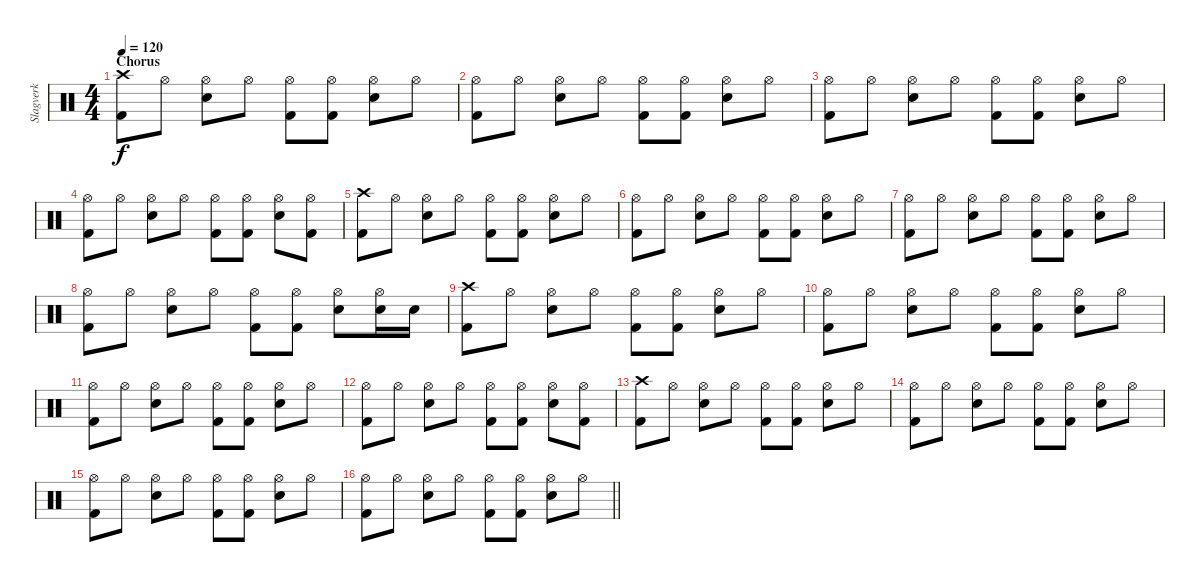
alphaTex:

\track ("Slagverk" "Slagverk") {instrument percussion}
\staff {score}
\articulation defaults
\ts (4 4)
\section ("" "Chorus")
\tempo 120
\clef neutral
\ks c
("Crash high (hit)" "Kick (hit) 2").8{dy f} "Hi-Hat (open)".8 ("Hi-Hat (open)" "Snare (hit) 2").8 "Hi-Hat (open)".8 ("Hi-Hat (open)" "Kick (hit) 2").8 ("Hi-Hat (open)" "Kick (hit) 2").8 ("Hi-Hat (open)" "Snare (hit) 2").8 "Hi-Hat (open)".8 |
("Hi-Hat (open)" "Kick (hit) 2").8 "Hi-Hat (open)".8 ("Hi-Hat (open)" "Snare (hit) 2").8 "Hi-Hat (open)".8 ("Hi-Hat (open)" "Kick (hit) 2").8 ("Hi-Hat (open)" "Kick (hit) 2").8 ("Hi-Hat (open)" "Snare (hit) 2").8 "Hi-Hat (open)".8 |
("Hi-Hat (open)" "Kick (hit) 2").8 "Hi-Hat (open)".8 ("Hi-Hat (open)" "Snare (hit) 2").8 "Hi-Hat (open)".8 ("Hi-Hat (open)" "Kick (hit) 2").8 ("Hi-Hat (open)" "Kick (hit) 2").8 ("Hi-Hat (open)" "Snare (hit) 2").8 "Hi-Hat (open)".8 |
("Hi-Hat (open)" "Kick (hit) 2").8 "Hi-Hat (open)".8 ("Hi-Hat (open)" "Snare (hit) 2").8 "Hi-Hat (open)".8 ("Hi-Hat (open)" "Kick (hit) 2").8 ("Hi-Hat (open)" "Kick (hit) 2").8 ("Hi-Hat (open)" "Snare (hit) 2").8 ("Hi-Hat (open)" "Kick (hit) 2").8 |
("Crash high (hit)" "Kick (hit) 2").8 "Hi-Hat (open)".8 ("Hi-Hat (open)" "Snare (hit) 2").8 "Hi-Hat (open)".8 ("Hi-Hat (open)" "Kick (hit) 2").8 ("Hi-Hat (open)" "Kick (hit) 2").8 ("Hi-Hat (open)" "Snare (hit) 2").8 "Hi-Hat (open)".8 |
("Hi-Hat (open)" "Kick (hit) 2").8 "Hi-Hat (open)".8 ("Hi-Hat (open)" "Snare (hit) 2").8 "Hi-Hat (open)".8 ("Hi-Hat (open)" "Kick (hit) 2").8 ("Hi-Hat (open)" "Kick (hit) 2").8 ("Hi-Hat (open)" "Snare (hit) 2").8 "Hi-Hat (open)".8 |
("Hi-Hat (open)" "Kick (hit) 2").8 "Hi-Hat (open)".8 ("Hi-Hat (open)" "Snare (hit) 2").8 "Hi-Hat (open)".8 ("Hi-Hat (open)" "Kick (hit) 2").8 ("Hi-Hat (open)" "Kick (hit) 2").8 ("Hi-Hat (open)" "Snare (hit) 2").8 "Hi-Hat (open)".8 |
("Hi-Hat (open)" "Kick (hit) 2").8 "Hi-Hat (open)".8 ("Hi-Hat (open)" "Snare (hit) 2").8 "Hi-Hat (open)".8 ("Hi-Hat (open)" "Kick (hit) 2").8 ("Hi-Hat (open)" "Kick (hit) 2").8 ("Hi-Hat (open)" "Snare (hit) 2").8 ("Hi-Hat (open)" "Snare (hit) 2").16 "Snare (hit) 2".16 |
("Crash high (hit)" "Kick (hit) 2").8 "Hi-Hat (open)".8 ("Hi-Hat (open)" "Snare (hit) 2").8 "Hi-Hat (open)".8 ("Hi-Hat (open)" "Kick (hit) 2").8 ("Hi-Hat (open)" "Kick (hit) 2").8 ("Hi-Hat (open)" "Snare (hit) 2").8 "Hi-Hat (open)".8 |
("Hi-Hat (open)" "Kick (hit) 2").8 "Hi-Hat (open)".8 ("Hi-Hat (open)" "Snare (hit) 2").8 "Hi-Hat (open)".8 ("Hi-Hat (open)" "Kick (hit) 2").8 ("Hi-Hat (open)" "Kick (hit) 2").8 ("Hi-Hat (open)" "Snare (hit) 2").8 "Hi-Hat (open)".8 |
("Hi-Hat (open)" "Kick (hit) 2").8 "Hi-Hat (open)".8 ("Hi-Hat (open)" "Snare (hit) 2").8 "Hi-Hat (open)".8 ("Hi-Hat (open)" "Kick (hit) 2").8 ("Hi-Hat (open)" "Kick (hit) 2").8 ("Hi-Hat (open)" "Snare (hit) 2").8 "Hi-Hat (open)".8 |
("Hi-Hat (open)" "Kick (hit) 2").8 "Hi-Hat (open)".8 ("Hi-Hat (open)" "Snare (hit) 2").8 "Hi-Hat (open)".8 ("Hi-Hat (open)" "Kick (hit) 2").8 ("Hi-Hat (open)" "Kick (hit) 2").8 ("Hi-Hat (open)" "Snare (hit) 2").8 ("Hi-Hat (open)" "Kick (hit) 2").8 |
("Crash high (hit)" "Kick (hit) 2").8 "Hi-Hat (open)".8 ("Hi-Hat (open)" "Snare (hit) 2").8 "Hi-Hat (open)".8 ("Hi-Hat (open)" "Kick (hit) 2").8 ("Hi-Hat (open)" "Kick (hit) 2").8 ("Hi-Hat (open)" "Snare (hit) 2").8 "Hi-Hat (open)".8 |
("Hi-Hat (open)" "Kick (hit) 2").8 "Hi-Hat (open)".8 ("Hi-Hat (open)" "Snare (hit) 2").8 "Hi-Hat (open)".8 ("Hi-Hat (open)" "Kick (hit) 2").8 ("Hi-Hat (open)" "Kick (hit) 2").8 ("Hi-Hat (open)" "Snare (hit) 2").8 "Hi-Hat (open)".8 |
("Hi-Hat (open)" "Kick (hit) 2").8 "Hi-Hat (open)".8 ("Hi-Hat (open)" "Snare (hit) 2").8 "Hi-Hat (open)".8 ("Hi-Hat (open)" "Kick (hit) 2").8 ("Hi-Hat (open)" "Kick (hit) 2").8 ("Hi-Hat (open)" "Snare (hit) 2").8 "Hi-Hat (open)".8 |
\barLineRight lightlight
("Hi-Hat (open)" "Kick (hit) 2").8 "Hi-Hat (open)".8 ("Hi-Hat (open)" "Snare (hit) 2").8 "Hi-Hat (open)".8 ("Hi-Hat (open)" "Kick (hit) 2").8 ("Hi-Hat (open)" "Kick (hit) 2").8 ("Hi-Hat (open)" "Snare (hit) 2").8 "Hi-Hat (open)".8
